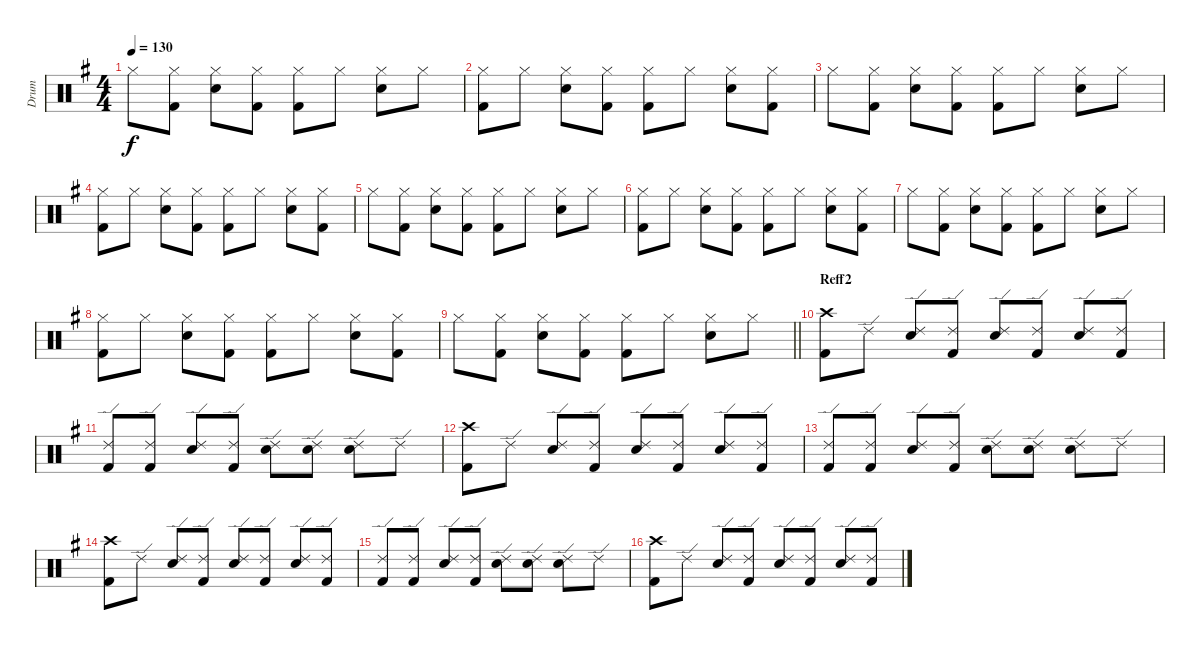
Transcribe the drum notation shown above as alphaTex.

\track ("Drum" "Drum") {instrument percussion}
\staff {score}
\articulation defaults
\ts (4 4)
\tempo 130
\clef neutral
\ks g "Hi-Hat (closed)".8{dy f}
("Kick (hit) 2" "Hi-Hat (closed)").8 ("Hi-Hat (closed)" "Electric Snare (hit)").8 ("Kick (hit) 2" "Hi-Hat (closed)").8 ("Kick (hit) 2" "Hi-Hat (closed)").8 "Hi-Hat (closed)".8 ("Hi-Hat (closed)" "Electric Snare (hit)").8 "Hi-Hat (closed)".8 |
("Kick (hit) 2" "Hi-Hat (closed)").8 "Hi-Hat (closed)".8 ("Hi-Hat (closed)" "Electric Snare (hit)").8 ("Kick (hit) 2" "Hi-Hat (closed)").8 ("Kick (hit) 2" "Hi-Hat (closed)").8 "Hi-Hat (closed)".8 ("Hi-Hat (closed)" "Electric Snare (hit)").8 ("Kick (hit) 2" "Hi-Hat (closed)").8 |
"Hi-Hat (closed)".8 ("Kick (hit) 2" "Hi-Hat (closed)").8 ("Hi-Hat (closed)" "Electric Snare (hit)").8 ("Kick (hit) 2" "Hi-Hat (closed)").8 ("Kick (hit) 2" "Hi-Hat (closed)").8 "Hi-Hat (closed)".8 ("Hi-Hat (closed)" "Electric Snare (hit)").8 "Hi-Hat (closed)".8 |
("Kick (hit) 2" "Hi-Hat (closed)").8 "Hi-Hat (closed)".8 ("Hi-Hat (closed)" "Electric Snare (hit)").8 ("Kick (hit) 2" "Hi-Hat (closed)").8 ("Kick (hit) 2" "Hi-Hat (closed)").8 "Hi-Hat (closed)".8 ("Hi-Hat (closed)" "Electric Snare (hit)").8 ("Kick (hit) 2" "Hi-Hat (closed)").8 |
"Hi-Hat (closed)".8 ("Kick (hit) 2" "Hi-Hat (closed)").8 ("Hi-Hat (closed)" "Electric Snare (hit)").8 ("Kick (hit) 2" "Hi-Hat (closed)").8 ("Kick (hit) 2" "Hi-Hat (closed)").8 "Hi-Hat (closed)".8 ("Hi-Hat (closed)" "Electric Snare (hit)").8 "Hi-Hat (closed)".8 |
("Kick (hit) 2" "Hi-Hat (closed)").8 "Hi-Hat (closed)".8 ("Hi-Hat (closed)" "Electric Snare (hit)").8 ("Kick (hit) 2" "Hi-Hat (closed)").8 ("Kick (hit) 2" "Hi-Hat (closed)").8 "Hi-Hat (closed)".8 ("Hi-Hat (closed)" "Electric Snare (hit)").8 ("Kick (hit) 2" "Hi-Hat (closed)").8 |
"Hi-Hat (closed)".8 ("Kick (hit) 2" "Hi-Hat (closed)").8 ("Hi-Hat (closed)" "Electric Snare (hit)").8 ("Kick (hit) 2" "Hi-Hat (closed)").8 ("Kick (hit) 2" "Hi-Hat (closed)").8 "Hi-Hat (closed)".8 ("Hi-Hat (closed)" "Electric Snare (hit)").8 "Hi-Hat (closed)".8 |
("Kick (hit) 2" "Hi-Hat (closed)").8 "Hi-Hat (closed)".8 ("Hi-Hat (closed)" "Electric Snare (hit)").8 ("Kick (hit) 2" "Hi-Hat (closed)").8 ("Kick (hit) 2" "Hi-Hat (closed)").8 "Hi-Hat (closed)".8 ("Hi-Hat (closed)" "Electric Snare (hit)").8 ("Kick (hit) 2" "Hi-Hat (closed)").8 |
\barLineRight lightlight "Hi-Hat (closed)".8
("Kick (hit) 2" "Hi-Hat (closed)").8 ("Hi-Hat (closed)" "Electric Snare (hit)").8 ("Kick (hit) 2" "Hi-Hat (closed)").8 ("Kick (hit) 2" "Hi-Hat (closed)").8 "Hi-Hat (closed)".8 ("Hi-Hat (closed)" "Electric Snare (hit)").8 "Hi-Hat (closed)".8 |
\section ("" "Reff2")
("Kick (hit) 2" "Crash high (hit)").8 "Ride (edge) 2".8 ("Ride (edge) 2" "Electric Snare (hit)").8 ("Ride (edge) 2" "Kick (hit) 2").8 ("Electric Snare (hit)" "Ride (edge) 2").8 ("Ride (edge) 2" "Kick (hit) 2").8 ("Electric Snare (hit)" "Ride (edge) 2").8 ("Kick (hit) 2" "Ride (edge) 2").8 |
("Kick (hit) 2" "Ride (edge) 2").8 ("Kick (hit) 2" "Ride (edge) 2").8 ("Ride (edge) 2" "Electric Snare (hit)").8 ("Ride (edge) 2" "Kick (hit) 2").8 ("Electric Snare (hit)" "Ride (edge) 2").8 ("Ride (edge) 2" "Electric Snare (hit)").8 ("Electric Snare (hit)" "Ride (edge) 2").8 "Ride (edge) 2".8 |
("Kick (hit) 2" "Crash high (hit)").8 "Ride (edge) 2".8 ("Ride (edge) 2" "Electric Snare (hit)").8 ("Ride (edge) 2" "Kick (hit) 2").8 ("Electric Snare (hit)" "Ride (edge) 2").8 ("Ride (edge) 2" "Kick (hit) 2").8 ("Electric Snare (hit)" "Ride (edge) 2").8 ("Kick (hit) 2" "Ride (edge) 2").8 |
("Kick (hit) 2" "Ride (edge) 2").8 ("Kick (hit) 2" "Ride (edge) 2").8 ("Ride (edge) 2" "Electric Snare (hit)").8 ("Ride (edge) 2" "Kick (hit) 2").8 ("Electric Snare (hit)" "Ride (edge) 2").8 ("Ride (edge) 2" "Electric Snare (hit)").8 ("Electric Snare (hit)" "Ride (edge) 2").8 "Ride (edge) 2".8 |
("Kick (hit) 2" "Crash high (hit)").8 "Ride (edge) 2".8 ("Ride (edge) 2" "Electric Snare (hit)").8 ("Ride (edge) 2" "Kick (hit) 2").8 ("Electric Snare (hit)" "Ride (edge) 2").8 ("Ride (edge) 2" "Kick (hit) 2").8 ("Electric Snare (hit)" "Ride (edge) 2").8 ("Kick (hit) 2" "Ride (edge) 2").8 |
("Kick (hit) 2" "Ride (edge) 2").8 ("Kick (hit) 2" "Ride (edge) 2").8 ("Ride (edge) 2" "Electric Snare (hit)").8 ("Ride (edge) 2" "Kick (hit) 2").8 ("Electric Snare (hit)" "Ride (edge) 2").8 ("Ride (edge) 2" "Electric Snare (hit)").8 ("Electric Snare (hit)" "Ride (edge) 2").8 "Ride (edge) 2".8 |
("Kick (hit) 2" "Crash high (hit)").8 "Ride (edge) 2".8 ("Ride (edge) 2" "Electric Snare (hit)").8 ("Ride (edge) 2" "Kick (hit) 2").8 ("Electric Snare (hit)" "Ride (edge) 2").8 ("Ride (edge) 2" "Kick (hit) 2").8 ("Electric Snare (hit)" "Ride (edge) 2").8 ("Kick (hit) 2" "Ride (edge) 2").8
